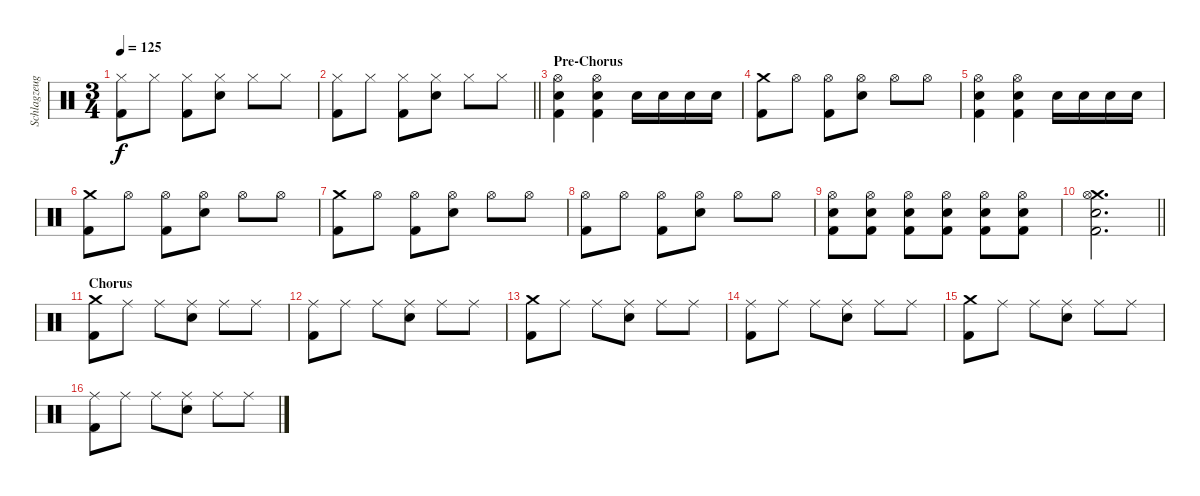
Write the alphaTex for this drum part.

\track ("Schlagzeug" "Schlagzeug") {instrument percussion}
\staff {score}
\articulation defaults
\ts (3 4)
\tempo 125
\clef neutral
\ks c
("Hi-Hat (closed)" "Kick (hit) 2").8{dy f} "Hi-Hat (closed)".8 ("Hi-Hat (closed)" "Kick (hit) 2").8 ("Hi-Hat (closed)" "Snare (hit) 2").8 "Hi-Hat (closed)".8 "Hi-Hat (closed)".8 |
\barLineRight lightlight
("Hi-Hat (closed)" "Kick (hit) 2").8 "Hi-Hat (closed)".8 ("Hi-Hat (closed)" "Kick (hit) 2").8 ("Hi-Hat (closed)" "Snare (hit) 2").8 "Hi-Hat (closed)".8 "Hi-Hat (closed)".8 |
\section ("" "Pre-Chorus")
("Hi-Hat (open)" "Snare (hit) 2" "Kick (hit) 2").4 ("Hi-Hat (open)" "Snare (hit) 2" "Kick (hit) 2").4 "Snare (hit) 2".16 "Snare (hit) 2".16 "Snare (hit) 2".16 "Snare (hit) 2".16 |
("Crash medium (hit)" "Kick (hit) 2").8 "Hi-Hat (open)".8 ("Hi-Hat (open)" "Kick (hit) 2").8 ("Hi-Hat (open)" "Snare (hit) 2").8 "Hi-Hat (open)".8 "Hi-Hat (open)".8 |
("Hi-Hat (open)" "Snare (hit) 2" "Kick (hit) 2").4 ("Hi-Hat (open)" "Snare (hit) 2" "Kick (hit) 2").4 "Snare (hit) 2".16 "Snare (hit) 2".16 "Snare (hit) 2".16 "Snare (hit) 2".16 |
("Crash medium (hit)" "Kick (hit) 2").8 "Hi-Hat (open)".8 ("Hi-Hat (open)" "Kick (hit) 2").8 ("Hi-Hat (open)" "Snare (hit) 2").8 "Hi-Hat (open)".8 "Hi-Hat (open)".8 |
("Crash medium (hit)" "Kick (hit) 2").8 "Hi-Hat (open)".8 ("Hi-Hat (open)" "Kick (hit) 2").8 ("Hi-Hat (open)" "Snare (hit) 2").8 "Hi-Hat (open)".8 "Hi-Hat (open)".8 |
("Hi-Hat (open)" "Kick (hit) 2").8 "Hi-Hat (open)".8 ("Hi-Hat (open)" "Kick (hit) 2").8 ("Hi-Hat (open)" "Snare (hit) 2").8 "Hi-Hat (open)".8 "Hi-Hat (open)".8 |
("Hi-Hat (open)" "Snare (hit) 2" "Kick (hit) 2").8 ("Hi-Hat (open)" "Snare (hit) 2" "Kick (hit) 2").8 ("Hi-Hat (open)" "Snare (hit) 2" "Kick (hit) 2").8 ("Hi-Hat (open)" "Snare (hit) 2" "Kick (hit) 2").8 ("Hi-Hat (open)" "Snare (hit) 2" "Kick (hit) 2").8 ("Hi-Hat (open)" "Snare (hit) 2" "Kick (hit) 2").8 |
\barLineRight lightlight
("Crash medium (hit)" "Hi-Hat (open)" "Snare (hit) 2" "Kick (hit) 2").2{d} |
\section ("" "Chorus")
("Crash medium (hit)" "Kick (hit) 2").8 "Ride (middle)".8 "Ride (middle)".8 ("Ride (middle)" "Snare (hit) 2").8 "Ride (middle)".8 "Ride (middle)".8 |
("Ride (middle)" "Kick (hit) 2").8 "Ride (middle)".8 "Ride (middle)".8 ("Ride (middle)" "Snare (hit) 2").8 "Ride (middle)".8 "Ride (middle)".8 |
("Crash medium (hit)" "Kick (hit) 2").8 "Ride (middle)".8 "Ride (middle)".8 ("Ride (middle)" "Snare (hit) 2").8 "Ride (middle)".8 "Ride (middle)".8 |
("Ride (middle)" "Kick (hit) 2").8 "Ride (middle)".8 "Ride (middle)".8 ("Ride (middle)" "Snare (hit) 2").8 "Ride (middle)".8 "Ride (middle)".8 |
("Crash medium (hit)" "Kick (hit) 2").8 "Ride (middle)".8 "Ride (middle)".8 ("Ride (middle)" "Snare (hit) 2").8 "Ride (middle)".8 "Ride (middle)".8 |
("Ride (middle)" "Kick (hit) 2").8 "Ride (middle)".8 "Ride (middle)".8 ("Ride (middle)" "Snare (hit) 2").8 "Ride (middle)".8 "Ride (middle)".8
